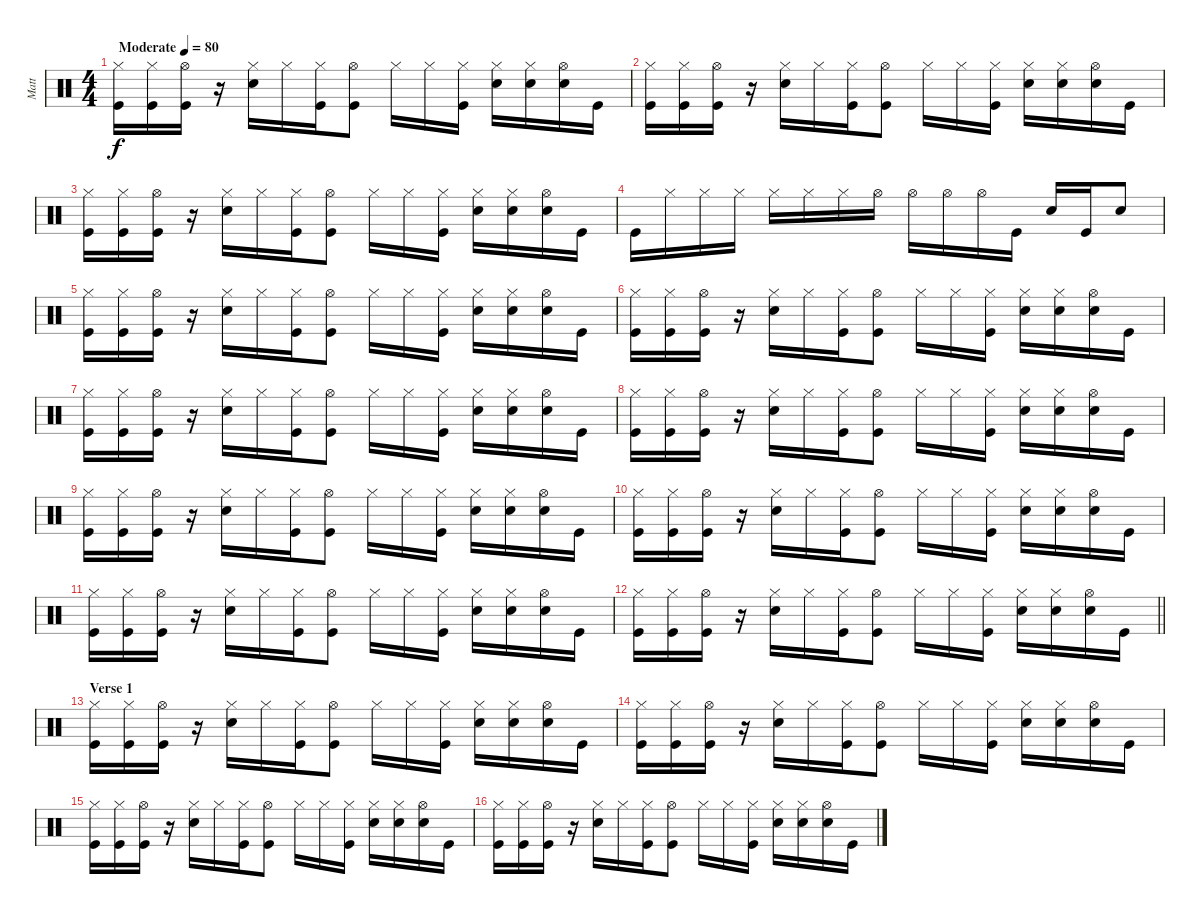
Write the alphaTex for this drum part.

\track ("Matt" "Matt") {instrument percussion}
\staff {score}
\articulation defaults
\ts (4 4)
\tempo (80 "Moderate")
\clef neutral
\ks c
("Hi-Hat (closed)" "Kick (hit)").16{dy f} ("Hi-Hat (closed)" "Kick (hit)").16 ("Hi-Hat (open)" "Kick (hit)").16 r.16 ("Hi-Hat (closed)" "Electric Snare (hit)").16 "Hi-Hat (closed)".16 ("Hi-Hat (closed)" "Kick (hit)").16 ("Hi-Hat (open)" "Kick (hit)").8 "Hi-Hat (closed)".16 "Hi-Hat (closed)".16 ("Hi-Hat (closed)" "Kick (hit)").16 ("Hi-Hat (closed)" "Electric Snare (hit)").16 ("Hi-Hat (closed)" "Electric Snare (hit)").16 ("Hi-Hat (open)" "Electric Snare (hit)").16 "Kick (hit)".16 |
("Hi-Hat (closed)" "Kick (hit)").16 ("Hi-Hat (closed)" "Kick (hit)").16 ("Hi-Hat (open)" "Kick (hit)").16 r.16 ("Hi-Hat (closed)" "Electric Snare (hit)").16 "Hi-Hat (closed)".16 ("Hi-Hat (closed)" "Kick (hit)").16 ("Hi-Hat (open)" "Kick (hit)").8 "Hi-Hat (closed)".16 "Hi-Hat (closed)".16 ("Hi-Hat (closed)" "Kick (hit)").16 ("Hi-Hat (closed)" "Electric Snare (hit)").16 ("Hi-Hat (closed)" "Electric Snare (hit)").16 ("Hi-Hat (open)" "Electric Snare (hit)").16 "Kick (hit)".16 |
("Hi-Hat (closed)" "Kick (hit)").16 ("Hi-Hat (closed)" "Kick (hit)").16 ("Hi-Hat (open)" "Kick (hit)").16 r.16 ("Hi-Hat (closed)" "Electric Snare (hit)").16 "Hi-Hat (closed)".16 ("Hi-Hat (closed)" "Kick (hit)").16 ("Hi-Hat (open)" "Kick (hit)").8 "Hi-Hat (closed)".16 "Hi-Hat (closed)".16 ("Hi-Hat (closed)" "Kick (hit)").16 ("Hi-Hat (closed)" "Electric Snare (hit)").16 ("Hi-Hat (closed)" "Electric Snare (hit)").16 ("Hi-Hat (open)" "Electric Snare (hit)").16 "Kick (hit)".16 |
"Kick (hit)".16 "Hi-Hat (closed)".16 "Hi-Hat (closed)".16 "Hi-Hat (closed)".16 "Hi-Hat (closed)".16 "Hi-Hat (closed)".16 "Hi-Hat (closed)".16 "Hi-Hat (open)".16 "Hi-Hat (open)".16 "Hi-Hat (open)".16 "Hi-Hat (open)".16 "Kick (hit)".16 "Electric Snare (hit)".16 "Kick (hit)".16 "Electric Snare (hit)".8 |
("Hi-Hat (closed)" "Kick (hit)").16 ("Hi-Hat (closed)" "Kick (hit)").16 ("Hi-Hat (open)" "Kick (hit)").16 r.16 ("Hi-Hat (closed)" "Electric Snare (hit)").16 "Hi-Hat (closed)".16 ("Hi-Hat (closed)" "Kick (hit)").16 ("Hi-Hat (open)" "Kick (hit)").8 "Hi-Hat (closed)".16 "Hi-Hat (closed)".16 ("Hi-Hat (closed)" "Kick (hit)").16 ("Hi-Hat (closed)" "Electric Snare (hit)").16 ("Hi-Hat (closed)" "Electric Snare (hit)").16 ("Hi-Hat (open)" "Electric Snare (hit)").16 "Kick (hit)".16 |
("Hi-Hat (closed)" "Kick (hit)").16 ("Hi-Hat (closed)" "Kick (hit)").16 ("Hi-Hat (open)" "Kick (hit)").16 r.16 ("Hi-Hat (closed)" "Electric Snare (hit)").16 "Hi-Hat (closed)".16 ("Hi-Hat (closed)" "Kick (hit)").16 ("Hi-Hat (open)" "Kick (hit)").8 "Hi-Hat (closed)".16 "Hi-Hat (closed)".16 ("Hi-Hat (closed)" "Kick (hit)").16 ("Hi-Hat (closed)" "Electric Snare (hit)").16 ("Hi-Hat (closed)" "Electric Snare (hit)").16 ("Hi-Hat (open)" "Electric Snare (hit)").16 "Kick (hit)".16 |
("Hi-Hat (closed)" "Kick (hit)").16 ("Hi-Hat (closed)" "Kick (hit)").16 ("Hi-Hat (open)" "Kick (hit)").16 r.16 ("Hi-Hat (closed)" "Electric Snare (hit)").16 "Hi-Hat (closed)".16 ("Hi-Hat (closed)" "Kick (hit)").16 ("Hi-Hat (open)" "Kick (hit)").8 "Hi-Hat (closed)".16 "Hi-Hat (closed)".16 ("Hi-Hat (closed)" "Kick (hit)").16 ("Hi-Hat (closed)" "Electric Snare (hit)").16 ("Hi-Hat (closed)" "Electric Snare (hit)").16 ("Hi-Hat (open)" "Electric Snare (hit)").16 "Kick (hit)".16 |
("Hi-Hat (closed)" "Kick (hit)").16 ("Hi-Hat (closed)" "Kick (hit)").16 ("Hi-Hat (open)" "Kick (hit)").16 r.16 ("Hi-Hat (closed)" "Electric Snare (hit)").16 "Hi-Hat (closed)".16 ("Hi-Hat (closed)" "Kick (hit)").16 ("Hi-Hat (open)" "Kick (hit)").8 "Hi-Hat (closed)".16 "Hi-Hat (closed)".16 ("Hi-Hat (closed)" "Kick (hit)").16 ("Hi-Hat (closed)" "Electric Snare (hit)").16 ("Hi-Hat (closed)" "Electric Snare (hit)").16 ("Hi-Hat (open)" "Electric Snare (hit)").16 "Kick (hit)".16 |
("Hi-Hat (closed)" "Kick (hit)").16 ("Hi-Hat (closed)" "Kick (hit)").16 ("Hi-Hat (open)" "Kick (hit)").16 r.16 ("Hi-Hat (closed)" "Electric Snare (hit)").16 "Hi-Hat (closed)".16 ("Hi-Hat (closed)" "Kick (hit)").16 ("Hi-Hat (open)" "Kick (hit)").8 "Hi-Hat (closed)".16 "Hi-Hat (closed)".16 ("Hi-Hat (closed)" "Kick (hit)").16 ("Hi-Hat (closed)" "Electric Snare (hit)").16 ("Hi-Hat (closed)" "Electric Snare (hit)").16 ("Hi-Hat (open)" "Electric Snare (hit)").16 "Kick (hit)".16 |
("Hi-Hat (closed)" "Kick (hit)").16 ("Hi-Hat (closed)" "Kick (hit)").16 ("Hi-Hat (open)" "Kick (hit)").16 r.16 ("Hi-Hat (closed)" "Electric Snare (hit)").16 "Hi-Hat (closed)".16 ("Hi-Hat (closed)" "Kick (hit)").16 ("Hi-Hat (open)" "Kick (hit)").8 "Hi-Hat (closed)".16 "Hi-Hat (closed)".16 ("Hi-Hat (closed)" "Kick (hit)").16 ("Hi-Hat (closed)" "Electric Snare (hit)").16 ("Hi-Hat (closed)" "Electric Snare (hit)").16 ("Hi-Hat (open)" "Electric Snare (hit)").16 "Kick (hit)".16 |
("Hi-Hat (closed)" "Kick (hit)").16 ("Hi-Hat (closed)" "Kick (hit)").16 ("Hi-Hat (open)" "Kick (hit)").16 r.16 ("Hi-Hat (closed)" "Electric Snare (hit)").16 "Hi-Hat (closed)".16 ("Hi-Hat (closed)" "Kick (hit)").16 ("Hi-Hat (open)" "Kick (hit)").8 "Hi-Hat (closed)".16 "Hi-Hat (closed)".16 ("Hi-Hat (closed)" "Kick (hit)").16 ("Hi-Hat (closed)" "Electric Snare (hit)").16 ("Hi-Hat (closed)" "Electric Snare (hit)").16 ("Hi-Hat (open)" "Electric Snare (hit)").16 "Kick (hit)".16 |
\barLineRight lightlight
("Hi-Hat (closed)" "Kick (hit)").16 ("Hi-Hat (closed)" "Kick (hit)").16 ("Hi-Hat (open)" "Kick (hit)").16 r.16 ("Hi-Hat (closed)" "Electric Snare (hit)").16 "Hi-Hat (closed)".16 ("Hi-Hat (closed)" "Kick (hit)").16 ("Hi-Hat (open)" "Kick (hit)").8 "Hi-Hat (closed)".16 "Hi-Hat (closed)".16 ("Hi-Hat (closed)" "Kick (hit)").16 ("Hi-Hat (closed)" "Electric Snare (hit)").16 ("Hi-Hat (closed)" "Electric Snare (hit)").16 ("Hi-Hat (open)" "Electric Snare (hit)").16 "Kick (hit)".16 |
\section ("" "Verse 1")
("Hi-Hat (closed)" "Kick (hit)").16 ("Hi-Hat (closed)" "Kick (hit)").16 ("Hi-Hat (open)" "Kick (hit)").16 r.16 ("Hi-Hat (closed)" "Electric Snare (hit)").16 "Hi-Hat (closed)".16 ("Hi-Hat (closed)" "Kick (hit)").16 ("Hi-Hat (open)" "Kick (hit)").8 "Hi-Hat (closed)".16 "Hi-Hat (closed)".16 ("Hi-Hat (closed)" "Kick (hit)").16 ("Hi-Hat (closed)" "Electric Snare (hit)").16 ("Hi-Hat (closed)" "Electric Snare (hit)").16 ("Hi-Hat (open)" "Electric Snare (hit)").16 "Kick (hit)".16 |
("Hi-Hat (closed)" "Kick (hit)").16 ("Hi-Hat (closed)" "Kick (hit)").16 ("Hi-Hat (open)" "Kick (hit)").16 r.16 ("Hi-Hat (closed)" "Electric Snare (hit)").16 "Hi-Hat (closed)".16 ("Hi-Hat (closed)" "Kick (hit)").16 ("Hi-Hat (open)" "Kick (hit)").8 "Hi-Hat (closed)".16 "Hi-Hat (closed)".16 ("Hi-Hat (closed)" "Kick (hit)").16 ("Hi-Hat (closed)" "Electric Snare (hit)").16 ("Hi-Hat (closed)" "Electric Snare (hit)").16 ("Hi-Hat (open)" "Electric Snare (hit)").16 "Kick (hit)".16 |
("Hi-Hat (closed)" "Kick (hit)").16 ("Hi-Hat (closed)" "Kick (hit)").16 ("Hi-Hat (open)" "Kick (hit)").16 r.16 ("Hi-Hat (closed)" "Electric Snare (hit)").16 "Hi-Hat (closed)".16 ("Hi-Hat (closed)" "Kick (hit)").16 ("Hi-Hat (open)" "Kick (hit)").8 "Hi-Hat (closed)".16 "Hi-Hat (closed)".16 ("Hi-Hat (closed)" "Kick (hit)").16 ("Hi-Hat (closed)" "Electric Snare (hit)").16 ("Hi-Hat (closed)" "Electric Snare (hit)").16 ("Hi-Hat (open)" "Electric Snare (hit)").16 "Kick (hit)".16 |
("Hi-Hat (closed)" "Kick (hit)").16 ("Hi-Hat (closed)" "Kick (hit)").16 ("Hi-Hat (open)" "Kick (hit)").16 r.16 ("Hi-Hat (closed)" "Electric Snare (hit)").16 "Hi-Hat (closed)".16 ("Hi-Hat (closed)" "Kick (hit)").16 ("Hi-Hat (open)" "Kick (hit)").8 "Hi-Hat (closed)".16 "Hi-Hat (closed)".16 ("Hi-Hat (closed)" "Kick (hit)").16 ("Hi-Hat (closed)" "Electric Snare (hit)").16 ("Hi-Hat (closed)" "Electric Snare (hit)").16 ("Hi-Hat (open)" "Electric Snare (hit)").16 "Kick (hit)".16
